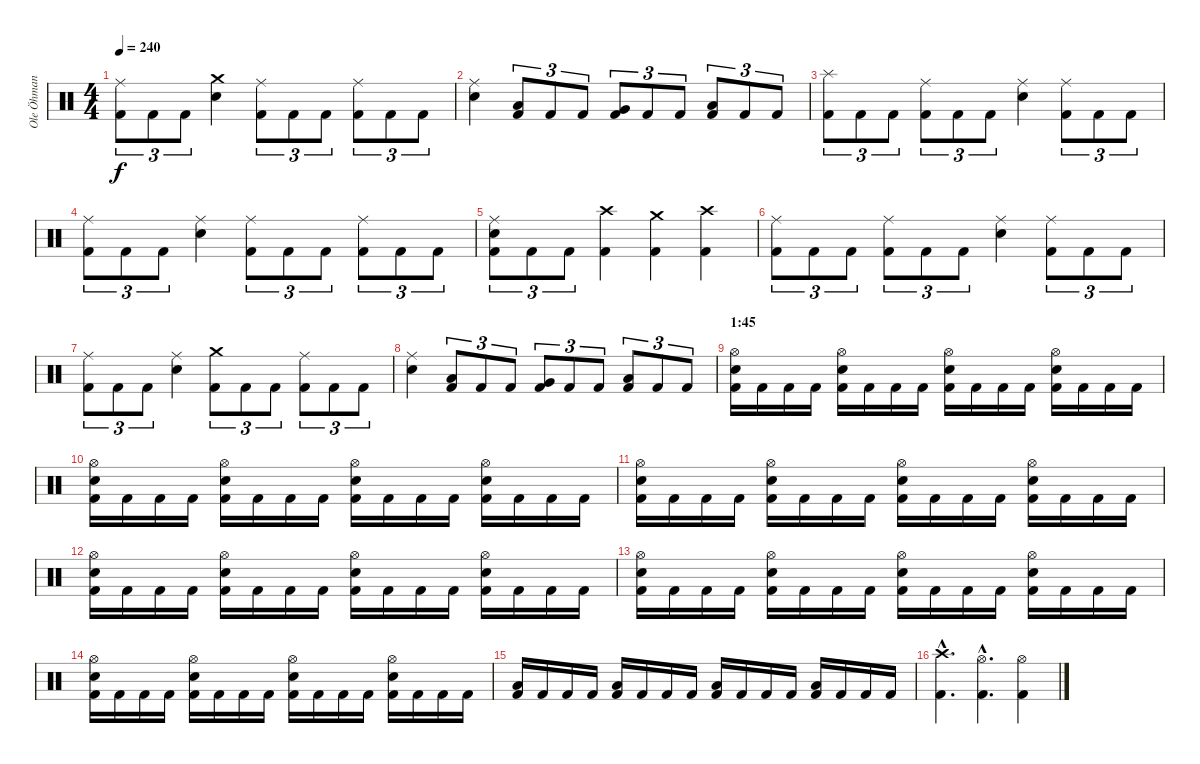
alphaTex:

\track ("Ole Öhman" "Ole Öhman") {instrument percussion}
\staff {score}
\articulation defaults
\ts (4 4)
\tempo 240
\clef neutral
\ks c
("Ride (middle)" "Kick (hit) 2").8{tu (3 2) dy f} "Kick (hit) 2".8{tu (3 2)} "Kick (hit) 2".8{tu (3 2)} ("Crash medium (hit)" "Electric Snare (hit)").4 ("Ride (middle)" "Kick (hit) 2").8{tu (3 2)} "Kick (hit) 2".8{tu (3 2)} "Kick (hit) 2".8{tu (3 2)} ("Ride (middle)" "Kick (hit) 2").8{tu (3 2)} "Kick (hit) 2".8{tu (3 2)} "Kick (hit) 2".8{tu (3 2)} |
("Ride (middle)" "Electric Snare (hit)").4 ("Low Tom (hit)" "Kick (hit) 2").8{tu (3 2)} "Kick (hit) 2".8{tu (3 2)} "Kick (hit) 2".8{tu (3 2)} ("Very Low Tom (hit)" "Kick (hit) 2").8{tu (3 2)} "Kick (hit) 2".8{tu (3 2)} "Kick (hit) 2".8{tu (3 2)} ("Low Floor Tom (hit)" "Kick (hit) 2").8{tu (3 2)} "Kick (hit) 2".8{tu (3 2)} "Kick (hit) 2".8{tu (3 2)} |
("Splash (hit)" "Kick (hit) 2").8{tu (3 2)} "Kick (hit) 2".8{tu (3 2)} "Kick (hit) 2".8{tu (3 2)} ("Ride (middle)" "Kick (hit) 2").8{tu (3 2)} "Kick (hit) 2".8{tu (3 2)} "Kick (hit) 2".8{tu (3 2)} ("Ride (middle)" "Electric Snare (hit)").4 ("Ride (middle)" "Kick (hit) 2").8{tu (3 2)} "Kick (hit) 2".8{tu (3 2)} "Kick (hit) 2".8{tu (3 2)} |
("Ride (middle)" "Kick (hit) 2").8{tu (3 2)} "Kick (hit) 2".8{tu (3 2)} "Kick (hit) 2".8{tu (3 2)} ("Ride (middle)" "Electric Snare (hit)").4 ("Ride (middle)" "Kick (hit) 2").8{tu (3 2)} "Kick (hit) 2".8{tu (3 2)} "Kick (hit) 2".8{tu (3 2)} ("Ride (middle)" "Kick (hit) 2").8{tu (3 2)} "Kick (hit) 2".8{tu (3 2)} "Kick (hit) 2".8{tu (3 2)} |
("Ride (middle)" "Electric Snare (hit)" "Kick (hit) 2").8{tu (3 2)} "Kick (hit) 2".8{tu (3 2)} "Kick (hit) 2".8{tu (3 2)} ("Crash high (hit)" "Kick (hit) 2").4 ("Crash medium (hit)" "Kick (hit) 2").4 ("Crash high (hit)" "Kick (hit) 2").4 |
("Ride (middle)" "Kick (hit) 2").8{tu (3 2)} "Kick (hit) 2".8{tu (3 2)} "Kick (hit) 2".8{tu (3 2)} ("Ride (middle)" "Kick (hit) 2").8{tu (3 2)} "Kick (hit) 2".8{tu (3 2)} "Kick (hit) 2".8{tu (3 2)} ("Ride (middle)" "Electric Snare (hit)").4 ("Ride (middle)" "Kick (hit) 2").8{tu (3 2)} "Kick (hit) 2".8{tu (3 2)} "Kick (hit) 2".8{tu (3 2)} |
("Ride (middle)" "Kick (hit) 2").8{tu (3 2)} "Kick (hit) 2".8{tu (3 2)} "Kick (hit) 2".8{tu (3 2)} ("Ride (middle)" "Electric Snare (hit)").4 ("Crash medium (hit)" "Kick (hit) 2").8{tu (3 2)} "Kick (hit) 2".8{tu (3 2)} "Kick (hit) 2".8{tu (3 2)} ("Ride (middle)" "Kick (hit) 2").8{tu (3 2)} "Kick (hit) 2".8{tu (3 2)} "Kick (hit) 2".8{tu (3 2)} |
("Ride (middle)" "Electric Snare (hit)").4 ("Low Tom (hit)" "Kick (hit) 2").8{tu (3 2)} "Kick (hit) 2".8{tu (3 2)} "Kick (hit) 2".8{tu (3 2)} ("Very Low Tom (hit)" "Kick (hit) 2").8{tu (3 2)} "Kick (hit) 2".8{tu (3 2)} "Kick (hit) 2".8{tu (3 2)} ("Low Floor Tom (hit)" "Kick (hit) 2").8{tu (3 2)} "Kick (hit) 2".8{tu (3 2)} "Kick (hit) 2".8{tu (3 2)} |
\section ("" "1:45")
("Hi-Hat (open)" "Electric Snare (hit)" "Kick (hit) 2").16 "Kick (hit) 2".16 "Kick (hit) 2".16 "Kick (hit) 2".16 ("Hi-Hat (open)" "Electric Snare (hit)" "Kick (hit) 2").16 "Kick (hit) 2".16 "Kick (hit) 2".16 "Kick (hit) 2".16 ("Hi-Hat (open)" "Electric Snare (hit)" "Kick (hit) 2").16 "Kick (hit) 2".16 "Kick (hit) 2".16 "Kick (hit) 2".16 ("Hi-Hat (open)" "Electric Snare (hit)" "Kick (hit) 2").16 "Kick (hit) 2".16 "Kick (hit) 2".16 "Kick (hit) 2".16 |
("Hi-Hat (open)" "Electric Snare (hit)" "Kick (hit) 2").16 "Kick (hit) 2".16 "Kick (hit) 2".16 "Kick (hit) 2".16 ("Hi-Hat (open)" "Electric Snare (hit)" "Kick (hit) 2").16 "Kick (hit) 2".16 "Kick (hit) 2".16 "Kick (hit) 2".16 ("Hi-Hat (open)" "Electric Snare (hit)" "Kick (hit) 2").16 "Kick (hit) 2".16 "Kick (hit) 2".16 "Kick (hit) 2".16 ("Hi-Hat (open)" "Electric Snare (hit)" "Kick (hit) 2").16 "Kick (hit) 2".16 "Kick (hit) 2".16 "Kick (hit) 2".16 |
("Hi-Hat (open)" "Electric Snare (hit)" "Kick (hit) 2").16 "Kick (hit) 2".16 "Kick (hit) 2".16 "Kick (hit) 2".16 ("Hi-Hat (open)" "Electric Snare (hit)" "Kick (hit) 2").16 "Kick (hit) 2".16 "Kick (hit) 2".16 "Kick (hit) 2".16 ("Hi-Hat (open)" "Electric Snare (hit)" "Kick (hit) 2").16 "Kick (hit) 2".16 "Kick (hit) 2".16 "Kick (hit) 2".16 ("Hi-Hat (open)" "Electric Snare (hit)" "Kick (hit) 2").16 "Kick (hit) 2".16 "Kick (hit) 2".16 "Kick (hit) 2".16 |
("Hi-Hat (open)" "Electric Snare (hit)" "Kick (hit) 2").16 "Kick (hit) 2".16 "Kick (hit) 2".16 "Kick (hit) 2".16 ("Hi-Hat (open)" "Electric Snare (hit)" "Kick (hit) 2").16 "Kick (hit) 2".16 "Kick (hit) 2".16 "Kick (hit) 2".16 ("Hi-Hat (open)" "Electric Snare (hit)" "Kick (hit) 2").16 "Kick (hit) 2".16 "Kick (hit) 2".16 "Kick (hit) 2".16 ("Hi-Hat (open)" "Electric Snare (hit)" "Kick (hit) 2").16 "Kick (hit) 2".16 "Kick (hit) 2".16 "Kick (hit) 2".16 |
("Hi-Hat (open)" "Electric Snare (hit)" "Kick (hit) 2").16 "Kick (hit) 2".16 "Kick (hit) 2".16 "Kick (hit) 2".16 ("Hi-Hat (open)" "Electric Snare (hit)" "Kick (hit) 2").16 "Kick (hit) 2".16 "Kick (hit) 2".16 "Kick (hit) 2".16 ("Hi-Hat (open)" "Electric Snare (hit)" "Kick (hit) 2").16 "Kick (hit) 2".16 "Kick (hit) 2".16 "Kick (hit) 2".16 ("Hi-Hat (open)" "Electric Snare (hit)" "Kick (hit) 2").16 "Kick (hit) 2".16 "Kick (hit) 2".16 "Kick (hit) 2".16 |
("Hi-Hat (open)" "Electric Snare (hit)" "Kick (hit) 2").16 "Kick (hit) 2".16 "Kick (hit) 2".16 "Kick (hit) 2".16 ("Hi-Hat (open)" "Electric Snare (hit)" "Kick (hit) 2").16 "Kick (hit) 2".16 "Kick (hit) 2".16 "Kick (hit) 2".16 ("Hi-Hat (open)" "Electric Snare (hit)" "Kick (hit) 2").16 "Kick (hit) 2".16 "Kick (hit) 2".16 "Kick (hit) 2".16 ("Hi-Hat (open)" "Electric Snare (hit)" "Kick (hit) 2").16 "Kick (hit) 2".16 "Kick (hit) 2".16 "Kick (hit) 2".16 |
("Low Tom (hit)" "Kick (hit) 2").16 "Kick (hit) 2".16 "Kick (hit) 2".16 "Kick (hit) 2".16 ("Low Tom (hit)" "Kick (hit) 2").16 "Kick (hit) 2".16 "Kick (hit) 2".16 "Kick (hit) 2".16 ("Low Tom (hit)" "Kick (hit) 2").16 "Kick (hit) 2".16 "Kick (hit) 2".16 "Kick (hit) 2".16 ("Low Tom (hit)" "Kick (hit) 2").16 "Kick (hit) 2".16 "Kick (hit) 2".16 "Kick (hit) 2".16 |
("Crash high (hit)"{hac} "Kick (hit) 2"{hac}).4{d} ("Hi-Hat (open)"{hac} "Kick (hit) 2"{hac}).4{d} ("Hi-Hat (open)" "Kick (hit) 2").4
